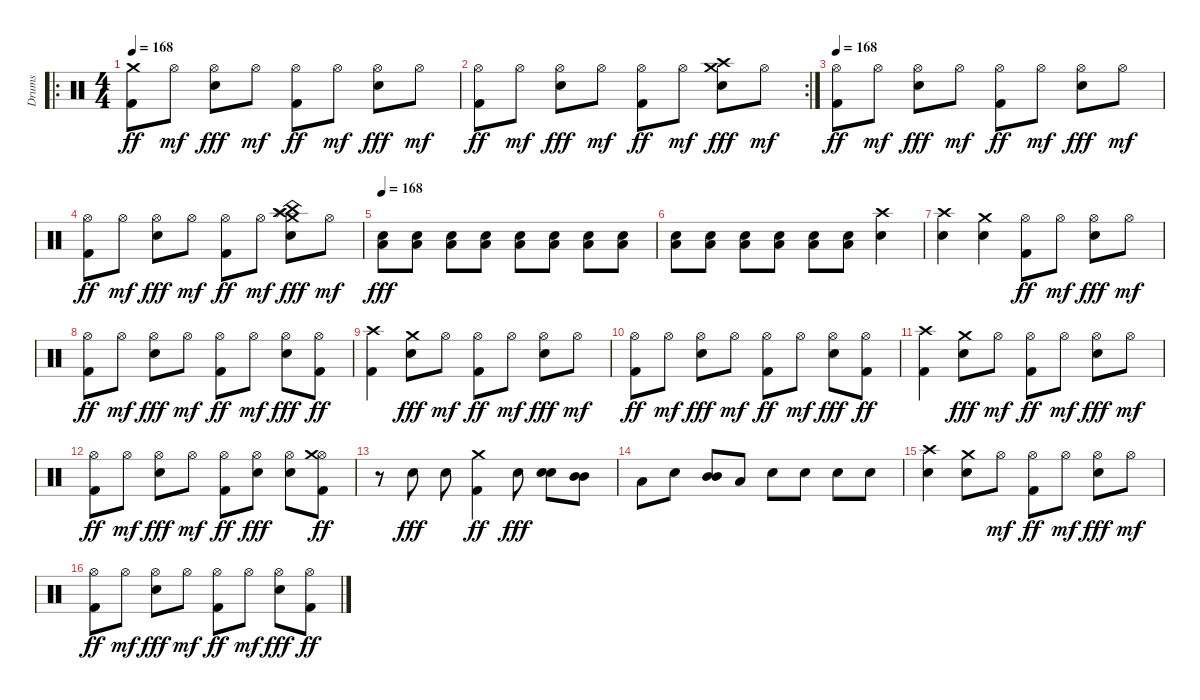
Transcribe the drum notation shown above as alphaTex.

\track ("Drums" "Drums") {instrument percussion}
\staff {score}
\articulation defaults
\ro
\ts (4 4)
\tempo 168
\clef neutral
\ks c
("Kick (hit) 2" "Crash medium (hit)").8{dy ff} "Hi-Hat (open)".8{dy mf} ("Hi-Hat (open)" "Snare (hit) 2").8{dy fff} "Hi-Hat (open)".8{dy mf} ("Hi-Hat (open)" "Kick (hit) 2").8{dy ff} "Hi-Hat (open)".8{dy mf} ("Hi-Hat (open)" "Snare (hit) 2").8{dy fff} "Hi-Hat (open)".8{dy mf} |
\rc 2
("Hi-Hat (open)" "Kick (hit) 2").8{dy ff} "Hi-Hat (open)".8{dy mf} ("Hi-Hat (open)" "Snare (hit) 2").8{dy fff} "Hi-Hat (open)".8{dy mf} ("Hi-Hat (open)" "Kick (hit) 2").8{dy ff} "Hi-Hat (open)".8{dy mf} ("Snare (hit) 2" "Crash high (hit)" "Crash medium (hit)").8{dy fff} "Hi-Hat (open)".8{dy mf} |
\tempo 168
("Hi-Hat (open)" "Kick (hit) 2").8{dy ff} "Hi-Hat (open)".8{dy mf} ("Hi-Hat (open)" "Snare (hit) 2").8{dy fff} "Hi-Hat (open)".8{dy mf} ("Hi-Hat (open)" "Kick (hit) 2").8{dy ff} "Hi-Hat (open)".8{dy mf} ("Hi-Hat (open)" "Snare (hit) 2").8{dy fff} "Hi-Hat (open)".8{dy mf} |
("Hi-Hat (open)" "Kick (hit) 2").8{dy ff} "Hi-Hat (open)".8{dy mf} ("Hi-Hat (open)" "Snare (hit) 2").8{dy fff} "Hi-Hat (open)".8{dy mf} ("Hi-Hat (open)" "Kick (hit) 2").8{dy ff} "Hi-Hat (open)".8{dy mf} ("Snare (hit) 2" "Crash high (hit)" "Crash medium (hit)" "Splash (hit)" "China (hit)").8{dy fff} "Hi-Hat (open)".8{dy mf} |
\tempo 168
("Snare (hit) 2" "Low Floor Tom (hit)").8{dy fff} ("Snare (hit) 2" "Low Floor Tom (hit)").8 ("Snare (hit) 2" "Low Floor Tom (hit)").8 ("Snare (hit) 2" "Low Floor Tom (hit)").8 ("Snare (hit) 2" "Low Floor Tom (hit)").8 ("Snare (hit) 2" "Low Floor Tom (hit)").8 ("Snare (hit) 2" "Low Floor Tom (hit)").8 ("Snare (hit) 2" "Low Floor Tom (hit)").8 |
("Snare (hit) 2" "Low Floor Tom (hit)").8 ("Snare (hit) 2" "Low Floor Tom (hit)").8 ("Snare (hit) 2" "Low Floor Tom (hit)").8 ("Snare (hit) 2" "Low Floor Tom (hit)").8 ("Snare (hit) 2" "Low Floor Tom (hit)").8 ("Snare (hit) 2" "Low Floor Tom (hit)").8 ("Snare (hit) 2" "Crash high (hit)").4 |
("Snare (hit) 2" "Crash high (hit)").4 ("Snare (hit) 2" "Crash medium (hit)").4 ("Hi-Hat (open)" "Kick (hit) 2").8{dy ff} "Hi-Hat (open)".8{dy mf} ("Hi-Hat (open)" "Snare (hit) 2").8{dy fff} "Hi-Hat (open)".8{dy mf} |
("Hi-Hat (open)" "Kick (hit) 2").8{dy ff} "Hi-Hat (open)".8{dy mf} ("Hi-Hat (open)" "Snare (hit) 2").8{dy fff} "Hi-Hat (open)".8{dy mf} ("Hi-Hat (open)" "Kick (hit) 2").8{dy ff} "Hi-Hat (open)".8{dy mf} ("Hi-Hat (open)" "Snare (hit) 2").8{dy fff} ("Hi-Hat (open)" "Kick (hit) 2").8{dy ff} |
("Kick (hit) 2" "Crash high (hit)").4 ("Snare (hit) 2" "Crash medium (hit)").8{dy fff} "Hi-Hat (open)".8{dy mf} ("Hi-Hat (open)" "Kick (hit) 2").8{dy ff} "Hi-Hat (open)".8{dy mf} ("Hi-Hat (open)" "Snare (hit) 2").8{dy fff} "Hi-Hat (open)".8{dy mf} |
("Hi-Hat (open)" "Kick (hit) 2").8{dy ff} "Hi-Hat (open)".8{dy mf} ("Hi-Hat (open)" "Snare (hit) 2").8{dy fff} "Hi-Hat (open)".8{dy mf} ("Hi-Hat (open)" "Kick (hit) 2").8{dy ff} "Hi-Hat (open)".8{dy mf} ("Hi-Hat (open)" "Snare (hit) 2").8{dy fff} ("Hi-Hat (open)" "Kick (hit) 2").8{dy ff} |
("Kick (hit) 2" "Crash high (hit)").4 ("Snare (hit) 2" "Crash medium (hit)").8{dy fff} "Hi-Hat (open)".8{dy mf} ("Hi-Hat (open)" "Kick (hit) 2").8{dy ff} "Hi-Hat (open)".8{dy mf} ("Hi-Hat (open)" "Snare (hit) 2").8{dy fff} "Hi-Hat (open)".8{dy mf} |
("Hi-Hat (open)" "Kick (hit) 2").8{dy ff} "Hi-Hat (open)".8{dy mf} ("Hi-Hat (open)" "Snare (hit) 2").8{dy fff} "Hi-Hat (open)".8{dy mf} ("Hi-Hat (open)" "Kick (hit) 2").8{dy ff} ("Hi-Hat (open)" "Snare (hit) 2").8{dy fff} ("Hi-Hat (open)" "Snare (hit) 2").8 ("Hi-Hat (open)" "Kick (hit) 2" "Crash medium (hit)").8{dy ff} |
r.8 "Snare (hit) 2".8{dy fff} "Snare (hit) 2".8 ("Kick (hit) 2" "Crash medium (hit)").4{dy ff} "Snare (hit) 2".8{dy fff} ("Snare (hit) 2" "Snare (hit) 2").8 ("Mid Tom (hit)" "Mid Tom (hit)").8 |
"Low Tom (hit)".8 "Electric Snare (hit)".8 ("Mid Tom (hit)" "Mid Tom (hit)").8 "Low Tom (hit)".8 "Snare (hit) 2".8 "Snare (hit) 2".8 "Snare (hit) 2".8 "Snare (hit) 2".8 |
("Electric Snare (hit)" "Crash high (hit)").4 ("Snare (hit) 2" "Crash medium (hit)").8 "Hi-Hat (open)".8{dy mf} ("Hi-Hat (open)" "Kick (hit) 2").8{dy ff} "Hi-Hat (open)".8{dy mf} ("Hi-Hat (open)" "Snare (hit) 2").8{dy fff} "Hi-Hat (open)".8{dy mf} |
("Hi-Hat (open)" "Kick (hit) 2").8{dy ff} "Hi-Hat (open)".8{dy mf} ("Hi-Hat (open)" "Snare (hit) 2").8{dy fff} "Hi-Hat (open)".8{dy mf} ("Hi-Hat (open)" "Kick (hit) 2").8{dy ff} "Hi-Hat (open)".8{dy mf} ("Hi-Hat (open)" "Snare (hit) 2").8{dy fff} ("Hi-Hat (open)" "Kick (hit) 2").8{dy ff}
